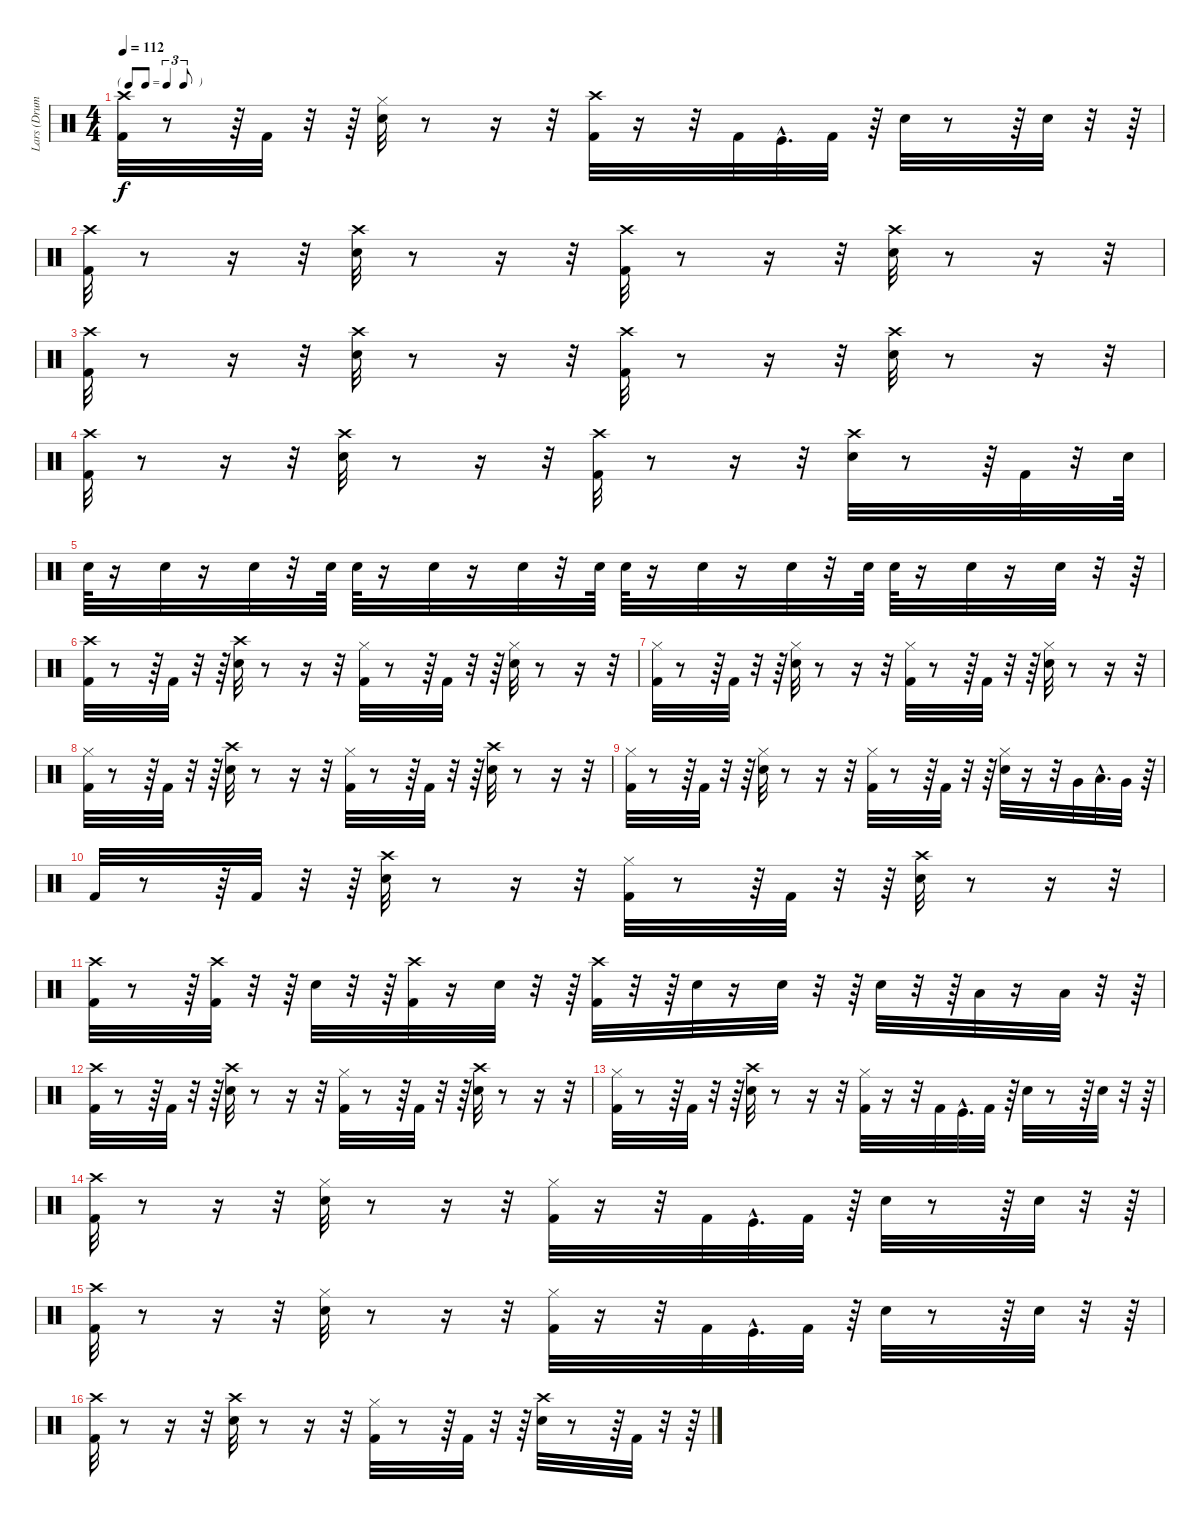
\track ("Lars (Drums)" "Lars (Drum") {instrument percussion}
\staff {score}
\articulation defaults
\ts (4 4)
\tf triplet8th
\tempo 112
\clef neutral
\ks c
("Crash high (hit)" "Kick (hit) 2").32{dy f} r.8 r.64 "Kick (hit) 2".32 r.32 r.64 ("Snare (hit) 2" "Hi-Hat (closed)").32 r.8 r.16 r.32 ("Crash high (hit)" "Kick (hit) 2").32 r.16 r.32 "Kick (hit) 2".32 "Kick (hit)"{hac}.32{d} "Kick (hit) 2".32 r.64 "Snare (hit) 2".32 r.8 r.64 "Snare (hit) 2".32 r.32 r.64 |
("Crash high (hit)" "Kick (hit) 2").32 r.8 r.16 r.32 ("Snare (hit) 2" "Crash high (hit)").32 r.8 r.16 r.32 ("Crash high (hit)" "Kick (hit) 2").32 r.8 r.16 r.32 ("Snare (hit) 2" "Crash high (hit)").32 r.8 r.16 r.32 |
("Crash high (hit)" "Kick (hit) 2").32 r.8 r.16 r.32 ("Snare (hit) 2" "Crash high (hit)").32 r.8 r.16 r.32 ("Crash high (hit)" "Kick (hit) 2").32 r.8 r.16 r.32 ("Snare (hit) 2" "Crash high (hit)").32 r.8 r.16 r.32 |
("Crash high (hit)" "Kick (hit) 2").32 r.8 r.16 r.32 ("Snare (hit) 2" "Crash high (hit)").32 r.8 r.16 r.32 ("Crash high (hit)" "Kick (hit) 2").32 r.8 r.16 r.32 ("Snare (hit) 2" "Crash high (hit)").32 r.8 r.64 "Kick (hit) 2".32 r.32 "Snare (hit) 2".64 |
"Snare (hit) 2".64 r.16 "Snare (hit) 2".32 r.16 "Snare (hit) 2".32 r.32 "Snare (hit) 2".64 "Snare (hit) 2".64 r.16 "Snare (hit) 2".32 r.16 "Snare (hit) 2".32 r.32 "Snare (hit) 2".64 "Snare (hit) 2".64 r.16 "Snare (hit) 2".32 r.16 "Snare (hit) 2".32 r.32 "Snare (hit) 2".64 "Snare (hit) 2".64 r.16 "Snare (hit) 2".32 r.16 "Snare (hit) 2".32 r.32 r.64 |
("Crash high (hit)" "Kick (hit) 2").32 r.8 r.64 "Kick (hit) 2".32 r.32 r.64 ("Snare (hit) 2" "Crash high (hit)").32 r.8 r.16 r.32 ("Hi-Hat (closed)" "Kick (hit) 2").32 r.8 r.64 "Kick (hit) 2".32 r.32 r.64 ("Snare (hit) 2" "Hi-Hat (closed)").32 r.8 r.16 r.32 |
("Kick (hit) 2" "Hi-Hat (closed)").32 r.8 r.64 "Kick (hit) 2".32 r.32 r.64 ("Snare (hit) 2" "Hi-Hat (closed)").32 r.8 r.16 r.32 ("Kick (hit) 2" "Hi-Hat (closed)").32 r.8 r.64 "Kick (hit) 2".32 r.32 r.64 ("Snare (hit) 2" "Hi-Hat (closed)").32 r.8 r.16 r.32 |
("Kick (hit) 2" "Hi-Hat (closed)").32 r.8 r.64 "Kick (hit) 2".32 r.32 r.64 ("Snare (hit) 2" "Crash high (hit)").32 r.8 r.16 r.32 ("Kick (hit) 2" "Hi-Hat (closed)").32 r.8 r.64 "Kick (hit) 2".32 r.32 r.64 ("Snare (hit) 2" "Crash high (hit)").32 r.8 r.16 r.32 |
("Hi-Hat (closed)" "Kick (hit) 2").32 r.8 r.64 "Kick (hit) 2".32 r.32 r.64 ("Snare (hit) 2" "Hi-Hat (closed)").32 r.8 r.16 r.32 ("Hi-Hat (closed)" "Kick (hit) 2").32 r.8 r.64 "Kick (hit) 2".32 r.32 r.64 ("Snare (hit) 2" "Hi-Hat (closed)").32 r.16 r.32 "Very Low Tom (hit)".32 "Low Floor Tom (hit)"{hac}.32{d} "Very Low Tom (hit)".32 r.64 |
"Kick (hit) 2".32 r.8 r.64 "Kick (hit) 2".32 r.32 r.64 ("Crash high (hit)" "Snare (hit) 2").32 r.8 r.16 r.32 ("Hi-Hat (closed)" "Kick (hit) 2").32 r.8 r.64 "Kick (hit) 2".32 r.32 r.64 ("Crash high (hit)" "Snare (hit) 2").32 r.8 r.16 r.32 |
("Kick (hit) 2" "Crash high (hit)").32 r.8 r.64 ("Kick (hit) 2" "Crash high (hit)").32 r.32 r.64 "Snare (hit) 2".32 r.32 r.64 ("Crash high (hit)" "Kick (hit) 2").32 r.16 "Snare (hit) 2".32 r.32 r.64 ("Crash high (hit)" "Kick (hit) 2").32 r.32 r.64 "Snare (hit) 2".32 r.16 "Snare (hit) 2".32 r.32 r.64 "Snare (hit) 2".32 r.32 r.64 "Low Floor Tom (hit)".32 r.16 "Low Floor Tom (hit)".32 r.32 r.64 |
("Crash high (hit)" "Kick (hit) 2").32 r.8 r.64 "Kick (hit) 2".32 r.32 r.64 ("Crash high (hit)" "Snare (hit) 2").32 r.8 r.16 r.32 ("Hi-Hat (closed)" "Kick (hit) 2").32 r.8 r.64 "Kick (hit) 2".32 r.32 r.64 ("Snare (hit) 2" "Crash high (hit)").32 r.8 r.16 r.32 |
("Hi-Hat (closed)" "Kick (hit) 2").32 r.8 r.64 "Kick (hit) 2".32 r.32 r.64 ("Snare (hit) 2" "Crash high (hit)").32 r.8 r.16 r.32 ("Hi-Hat (closed)" "Kick (hit) 2").32 r.16 r.32 "Kick (hit) 2".32 "Kick (hit)"{hac}.32{d} "Kick (hit) 2".32 r.64 "Snare (hit) 2".32 r.8 r.64 "Snare (hit) 2".32 r.32 r.64 |
("Crash high (hit)" "Kick (hit) 2").32 r.8 r.16 r.32 ("Snare (hit) 2" "Hi-Hat (closed)").32 r.8 r.16 r.32 ("Hi-Hat (closed)" "Kick (hit) 2").32 r.16 r.32 "Kick (hit) 2".32 "Kick (hit)"{hac}.32{d} "Kick (hit) 2".32 r.64 "Snare (hit) 2".32 r.8 r.64 "Snare (hit) 2".32 r.32 r.64 |
("Crash high (hit)" "Kick (hit) 2").32 r.8 r.16 r.32 ("Snare (hit) 2" "Hi-Hat (closed)").32 r.8 r.16 r.32 ("Hi-Hat (closed)" "Kick (hit) 2").32 r.16 r.32 "Kick (hit) 2".32 "Kick (hit)"{hac}.32{d} "Kick (hit) 2".32 r.64 "Snare (hit) 2".32 r.8 r.64 "Snare (hit) 2".32 r.32 r.64 |
("Crash high (hit)" "Kick (hit) 2").32 r.8 r.16 r.32 ("Crash high (hit)" "Snare (hit) 2").32 r.8 r.16 r.32 ("Kick (hit) 2" "Hi-Hat (closed)").32 r.8 r.64 "Kick (hit) 2".32 r.32 r.64 ("Crash high (hit)" "Snare (hit) 2").32 r.8 r.64 "Kick (hit) 2".32 r.32 r.64
